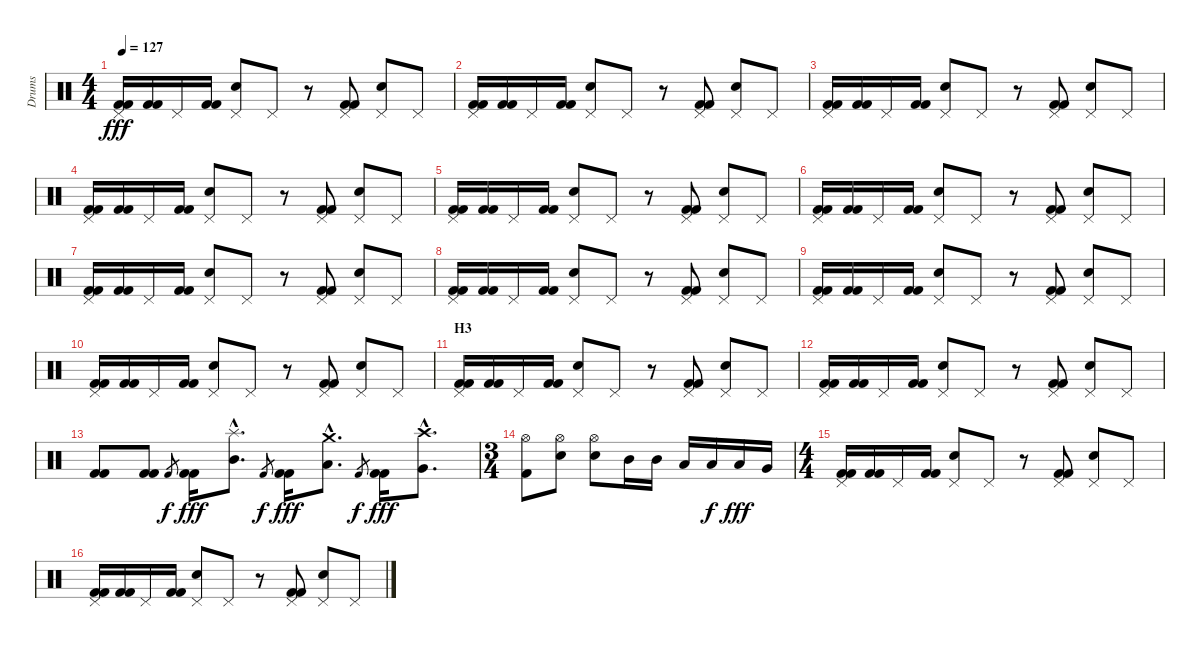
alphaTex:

\track ("Drums" "Drums") {instrument percussion}
\staff {score}
\articulation defaults
\ts (4 4)
\tempo 127
\clef neutral
\ks c
("Pedal Hi-Hat (hit)" "Kick (hit) 2" "Kick (hit) 2").16{dy fff} ("Kick (hit) 2" "Kick (hit) 2").16 "Pedal Hi-Hat (hit)".16 ("Kick (hit) 2" "Kick (hit) 2").16 ("Pedal Hi-Hat (hit)" "Electric Snare (hit)").8 "Pedal Hi-Hat (hit)".8 r.8 ("Pedal Hi-Hat (hit)" "Kick (hit) 2" "Kick (hit) 2").8 ("Pedal Hi-Hat (hit)" "Electric Snare (hit)").8 "Pedal Hi-Hat (hit)".8 |
("Pedal Hi-Hat (hit)" "Kick (hit) 2" "Kick (hit) 2").16 ("Kick (hit) 2" "Kick (hit) 2").16 "Pedal Hi-Hat (hit)".16 ("Kick (hit) 2" "Kick (hit) 2").16 ("Pedal Hi-Hat (hit)" "Electric Snare (hit)").8 "Pedal Hi-Hat (hit)".8 r.8 ("Pedal Hi-Hat (hit)" "Kick (hit) 2" "Kick (hit) 2").8 ("Pedal Hi-Hat (hit)" "Electric Snare (hit)").8 "Pedal Hi-Hat (hit)".8 |
("Pedal Hi-Hat (hit)" "Kick (hit) 2" "Kick (hit) 2").16 ("Kick (hit) 2" "Kick (hit) 2").16 "Pedal Hi-Hat (hit)".16 ("Kick (hit) 2" "Kick (hit) 2").16 ("Pedal Hi-Hat (hit)" "Electric Snare (hit)").8 "Pedal Hi-Hat (hit)".8 r.8 ("Pedal Hi-Hat (hit)" "Kick (hit) 2" "Kick (hit) 2").8 ("Pedal Hi-Hat (hit)" "Electric Snare (hit)").8 "Pedal Hi-Hat (hit)".8 |
("Pedal Hi-Hat (hit)" "Kick (hit) 2" "Kick (hit) 2").16 ("Kick (hit) 2" "Kick (hit) 2").16 "Pedal Hi-Hat (hit)".16 ("Kick (hit) 2" "Kick (hit) 2").16 ("Pedal Hi-Hat (hit)" "Electric Snare (hit)").8 "Pedal Hi-Hat (hit)".8 r.8 ("Pedal Hi-Hat (hit)" "Kick (hit) 2" "Kick (hit) 2").8 ("Pedal Hi-Hat (hit)" "Electric Snare (hit)").8 "Pedal Hi-Hat (hit)".8 |
("Pedal Hi-Hat (hit)" "Kick (hit) 2" "Kick (hit) 2").16 ("Kick (hit) 2" "Kick (hit) 2").16 "Pedal Hi-Hat (hit)".16 ("Kick (hit) 2" "Kick (hit) 2").16 ("Pedal Hi-Hat (hit)" "Electric Snare (hit)").8 "Pedal Hi-Hat (hit)".8 r.8 ("Pedal Hi-Hat (hit)" "Kick (hit) 2" "Kick (hit) 2").8 ("Pedal Hi-Hat (hit)" "Electric Snare (hit)").8 "Pedal Hi-Hat (hit)".8 |
("Pedal Hi-Hat (hit)" "Kick (hit) 2" "Kick (hit) 2").16 ("Kick (hit) 2" "Kick (hit) 2").16 "Pedal Hi-Hat (hit)".16 ("Kick (hit) 2" "Kick (hit) 2").16 ("Pedal Hi-Hat (hit)" "Electric Snare (hit)").8 "Pedal Hi-Hat (hit)".8 r.8 ("Pedal Hi-Hat (hit)" "Kick (hit) 2" "Kick (hit) 2").8 ("Pedal Hi-Hat (hit)" "Electric Snare (hit)").8 "Pedal Hi-Hat (hit)".8 |
("Pedal Hi-Hat (hit)" "Kick (hit) 2" "Kick (hit) 2").16 ("Kick (hit) 2" "Kick (hit) 2").16 "Pedal Hi-Hat (hit)".16 ("Kick (hit) 2" "Kick (hit) 2").16 ("Pedal Hi-Hat (hit)" "Electric Snare (hit)").8 "Pedal Hi-Hat (hit)".8 r.8 ("Pedal Hi-Hat (hit)" "Kick (hit) 2" "Kick (hit) 2").8 ("Pedal Hi-Hat (hit)" "Electric Snare (hit)").8 "Pedal Hi-Hat (hit)".8 |
("Pedal Hi-Hat (hit)" "Kick (hit) 2" "Kick (hit) 2").16 ("Kick (hit) 2" "Kick (hit) 2").16 "Pedal Hi-Hat (hit)".16 ("Kick (hit) 2" "Kick (hit) 2").16 ("Pedal Hi-Hat (hit)" "Electric Snare (hit)").8 "Pedal Hi-Hat (hit)".8 r.8 ("Pedal Hi-Hat (hit)" "Kick (hit) 2" "Kick (hit) 2").8 ("Pedal Hi-Hat (hit)" "Electric Snare (hit)").8 "Pedal Hi-Hat (hit)".8 |
("Pedal Hi-Hat (hit)" "Kick (hit) 2" "Kick (hit) 2").16 ("Kick (hit) 2" "Kick (hit) 2").16 "Pedal Hi-Hat (hit)".16 ("Kick (hit) 2" "Kick (hit) 2").16 ("Pedal Hi-Hat (hit)" "Electric Snare (hit)").8 "Pedal Hi-Hat (hit)".8 r.8 ("Pedal Hi-Hat (hit)" "Kick (hit) 2" "Kick (hit) 2").8 ("Pedal Hi-Hat (hit)" "Electric Snare (hit)").8 "Pedal Hi-Hat (hit)".8 |
("Pedal Hi-Hat (hit)" "Kick (hit) 2" "Kick (hit) 2").16 ("Kick (hit) 2" "Kick (hit) 2").16 "Pedal Hi-Hat (hit)".16 ("Kick (hit) 2" "Kick (hit) 2").16 ("Pedal Hi-Hat (hit)" "Electric Snare (hit)").8 "Pedal Hi-Hat (hit)".8 r.8 ("Pedal Hi-Hat (hit)" "Kick (hit) 2" "Kick (hit) 2").8 ("Pedal Hi-Hat (hit)" "Electric Snare (hit)").8 "Pedal Hi-Hat (hit)".8 |
\section ("" "H3")
("Pedal Hi-Hat (hit)" "Kick (hit) 2" "Kick (hit) 2").16 ("Kick (hit) 2" "Kick (hit) 2").16 "Pedal Hi-Hat (hit)".16 ("Kick (hit) 2" "Kick (hit) 2").16 ("Pedal Hi-Hat (hit)" "Electric Snare (hit)").8 "Pedal Hi-Hat (hit)".8 r.8 ("Pedal Hi-Hat (hit)" "Kick (hit) 2" "Kick (hit) 2").8 ("Pedal Hi-Hat (hit)" "Electric Snare (hit)").8 "Pedal Hi-Hat (hit)".8 |
("Pedal Hi-Hat (hit)" "Kick (hit) 2" "Kick (hit) 2").16 ("Kick (hit) 2" "Kick (hit) 2").16 "Pedal Hi-Hat (hit)".16 ("Kick (hit) 2" "Kick (hit) 2").16 ("Pedal Hi-Hat (hit)" "Electric Snare (hit)").8 "Pedal Hi-Hat (hit)".8 r.8 ("Pedal Hi-Hat (hit)" "Kick (hit) 2" "Kick (hit) 2").8 ("Pedal Hi-Hat (hit)" "Electric Snare (hit)").8 "Pedal Hi-Hat (hit)".8 |
("Kick (hit) 2" "Kick (hit) 2").8 ("Kick (hit) 2" "Kick (hit) 2").8 "Kick (hit) 2".8{gr dy f} ("Kick (hit) 2" "Kick (hit) 2").16{dy fff} ("Splash (hit)"{hac} "Mid Tom (hit)"{hac}).8{d} "Kick (hit) 2".8{gr dy f} ("Kick (hit) 2" "Kick (hit) 2").16{dy fff} ("Crash medium (hit)"{hac} "Low Tom (hit)"{hac}).8{d} "Kick (hit) 2".8{gr dy f} ("Kick (hit) 2" "Kick (hit) 2").16{dy fff} ("Crash high (hit)"{hac} "Very Low Tom (hit)"{hac}).8{d} |
\ts (3 4)
("Hi-Hat (open)" "Kick (hit) 2").8 ("Hi-Hat (open)" "Electric Snare (hit)").8 ("Hi-Hat (open)" "Electric Snare (hit)").8 "Mid Tom (hit)".16 "Mid Tom (hit)".16 "Low Tom (hit)".16 "Low Tom (hit)".16{dy f} "Low Tom (hit)".16{dy fff} "Very Low Tom (hit)".16 |
\ts (4 4)
("Pedal Hi-Hat (hit)" "Kick (hit) 2" "Kick (hit) 2").16 ("Kick (hit) 2" "Kick (hit) 2").16 "Pedal Hi-Hat (hit)".16 ("Kick (hit) 2" "Kick (hit) 2").16 ("Pedal Hi-Hat (hit)" "Electric Snare (hit)").8 "Pedal Hi-Hat (hit)".8 r.8 ("Pedal Hi-Hat (hit)" "Kick (hit) 2" "Kick (hit) 2").8 ("Pedal Hi-Hat (hit)" "Electric Snare (hit)").8 "Pedal Hi-Hat (hit)".8 |
("Pedal Hi-Hat (hit)" "Kick (hit) 2" "Kick (hit) 2").16 ("Kick (hit) 2" "Kick (hit) 2").16 "Pedal Hi-Hat (hit)".16 ("Kick (hit) 2" "Kick (hit) 2").16 ("Pedal Hi-Hat (hit)" "Electric Snare (hit)").8 "Pedal Hi-Hat (hit)".8 r.8 ("Pedal Hi-Hat (hit)" "Kick (hit) 2" "Kick (hit) 2").8 ("Pedal Hi-Hat (hit)" "Electric Snare (hit)").8 "Pedal Hi-Hat (hit)".8
